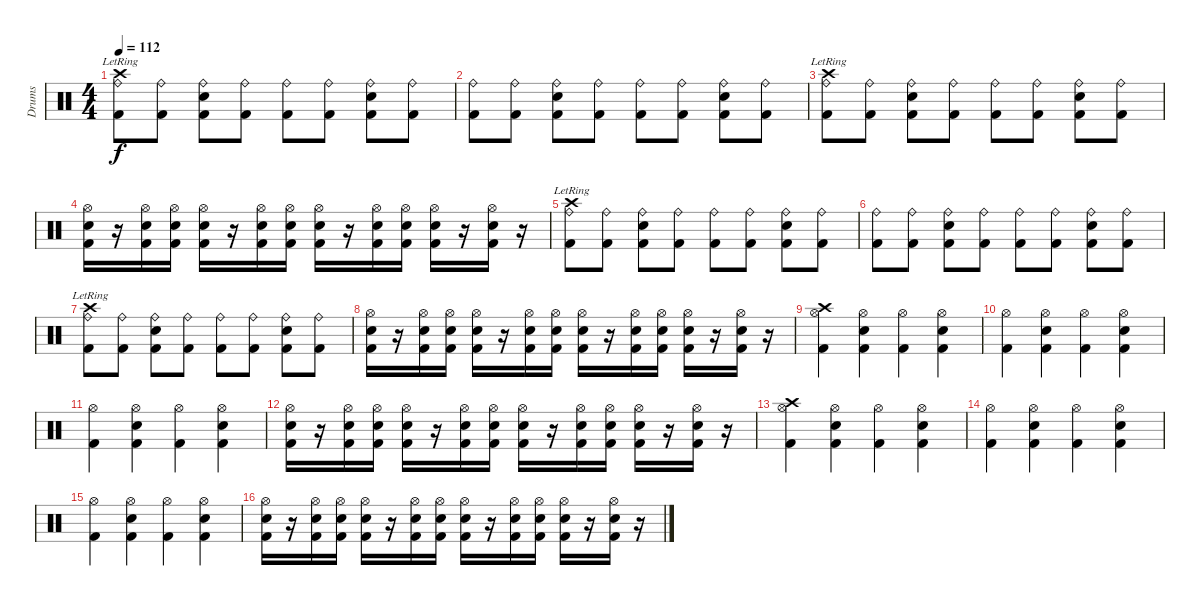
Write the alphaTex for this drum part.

\track ("Drums" "Drums") {instrument percussion}
\staff {score}
\articulation defaults
\ts (4 4)
\tempo 112
\clef neutral
\ks c
("Ride (bell)" "Kick (hit) 2" "Crash high (hit)"{lr}).8{dy f} ("Ride (bell)" "Kick (hit) 2").8 ("Ride (bell)" "Kick (hit) 2" "Electric Snare (hit)").8 ("Ride (bell)" "Kick (hit) 2").8 ("Ride (bell)" "Kick (hit) 2").8 ("Ride (bell)" "Kick (hit) 2").8 ("Ride (bell)" "Kick (hit) 2" "Electric Snare (hit)").8 ("Ride (bell)" "Kick (hit) 2").8 |
("Ride (bell)" "Kick (hit) 2").8 ("Ride (bell)" "Kick (hit) 2").8 ("Ride (bell)" "Kick (hit) 2" "Electric Snare (hit)").8 ("Ride (bell)" "Kick (hit) 2").8 ("Ride (bell)" "Kick (hit) 2").8 ("Ride (bell)" "Kick (hit) 2").8 ("Ride (bell)" "Kick (hit) 2" "Electric Snare (hit)").8 ("Ride (bell)" "Kick (hit) 2").8 |
("Ride (bell)" "Kick (hit) 2" "Crash high (hit)"{lr}).8 ("Ride (bell)" "Kick (hit) 2").8 ("Ride (bell)" "Kick (hit) 2" "Electric Snare (hit)").8 ("Ride (bell)" "Kick (hit) 2").8 ("Ride (bell)" "Kick (hit) 2").8 ("Ride (bell)" "Kick (hit) 2").8 ("Ride (bell)" "Kick (hit) 2" "Electric Snare (hit)").8 ("Ride (bell)" "Kick (hit) 2").8 |
("Hi-Hat (open)" "Electric Snare (hit)" "Kick (hit) 2").16 r.16 ("Hi-Hat (open)" "Snare (hit) 2" "Kick (hit) 2").16 ("Hi-Hat (open)" "Snare (hit) 2" "Kick (hit) 2").16 ("Hi-Hat (open)" "Electric Snare (hit)" "Kick (hit) 2").16 r.16 ("Hi-Hat (open)" "Snare (hit) 2" "Kick (hit) 2").16 ("Hi-Hat (open)" "Snare (hit) 2" "Kick (hit) 2").16 ("Hi-Hat (open)" "Electric Snare (hit)" "Kick (hit) 2").16 r.16 ("Hi-Hat (open)" "Snare (hit) 2" "Kick (hit) 2").16 ("Hi-Hat (open)" "Snare (hit) 2" "Kick (hit) 2").16 ("Hi-Hat (open)" "Electric Snare (hit)" "Kick (hit) 2").16 r.16 ("Hi-Hat (open)" "Snare (hit) 2" "Kick (hit) 2").16 r.16 |
("Ride (bell)" "Kick (hit) 2" "Crash high (hit)"{lr}).8 ("Ride (bell)" "Kick (hit) 2").8 ("Ride (bell)" "Kick (hit) 2" "Electric Snare (hit)").8 ("Ride (bell)" "Kick (hit) 2").8 ("Ride (bell)" "Kick (hit) 2").8 ("Ride (bell)" "Kick (hit) 2").8 ("Ride (bell)" "Kick (hit) 2" "Electric Snare (hit)").8 ("Ride (bell)" "Kick (hit) 2").8 |
("Ride (bell)" "Kick (hit) 2").8 ("Ride (bell)" "Kick (hit) 2").8 ("Ride (bell)" "Kick (hit) 2" "Electric Snare (hit)").8 ("Ride (bell)" "Kick (hit) 2").8 ("Ride (bell)" "Kick (hit) 2").8 ("Ride (bell)" "Kick (hit) 2").8 ("Ride (bell)" "Kick (hit) 2" "Electric Snare (hit)").8 ("Ride (bell)" "Kick (hit) 2").8 |
("Ride (bell)" "Kick (hit) 2" "Crash high (hit)"{lr}).8 ("Ride (bell)" "Kick (hit) 2").8 ("Ride (bell)" "Kick (hit) 2" "Electric Snare (hit)").8 ("Ride (bell)" "Kick (hit) 2").8 ("Ride (bell)" "Kick (hit) 2").8 ("Ride (bell)" "Kick (hit) 2").8 ("Ride (bell)" "Kick (hit) 2" "Electric Snare (hit)").8 ("Ride (bell)" "Kick (hit) 2").8 |
("Hi-Hat (open)" "Electric Snare (hit)" "Kick (hit) 2").16 r.16 ("Hi-Hat (open)" "Snare (hit) 2" "Kick (hit) 2").16 ("Hi-Hat (open)" "Snare (hit) 2" "Kick (hit) 2").16 ("Hi-Hat (open)" "Electric Snare (hit)" "Kick (hit) 2").16 r.16 ("Hi-Hat (open)" "Snare (hit) 2" "Kick (hit) 2").16 ("Hi-Hat (open)" "Snare (hit) 2" "Kick (hit) 2").16 ("Hi-Hat (open)" "Electric Snare (hit)" "Kick (hit) 2").16 r.16 ("Hi-Hat (open)" "Snare (hit) 2" "Kick (hit) 2").16 ("Hi-Hat (open)" "Snare (hit) 2" "Kick (hit) 2").16 ("Hi-Hat (open)" "Electric Snare (hit)" "Kick (hit) 2").16 r.16 ("Hi-Hat (open)" "Snare (hit) 2" "Kick (hit) 2").16 r.16 |
("Crash high (hit)" "Hi-Hat (open)" "Kick (hit) 2").4 ("Electric Snare (hit)" "Hi-Hat (open)" "Kick (hit) 2").4 ("Hi-Hat (open)" "Kick (hit) 2").4 ("Electric Snare (hit)" "Hi-Hat (open)" "Kick (hit) 2").4 |
("Hi-Hat (open)" "Kick (hit) 2").4 ("Electric Snare (hit)" "Hi-Hat (open)" "Kick (hit) 2").4 ("Hi-Hat (open)" "Kick (hit) 2").4 ("Electric Snare (hit)" "Hi-Hat (open)" "Kick (hit) 2").4 |
("Hi-Hat (open)" "Kick (hit) 2").4 ("Electric Snare (hit)" "Hi-Hat (open)" "Kick (hit) 2").4 ("Hi-Hat (open)" "Kick (hit) 2").4 ("Electric Snare (hit)" "Hi-Hat (open)" "Kick (hit) 2").4 |
("Hi-Hat (open)" "Electric Snare (hit)" "Kick (hit) 2").16 r.16 ("Hi-Hat (open)" "Snare (hit) 2" "Kick (hit) 2").16 ("Hi-Hat (open)" "Snare (hit) 2" "Kick (hit) 2").16 ("Hi-Hat (open)" "Electric Snare (hit)" "Kick (hit) 2").16 r.16 ("Hi-Hat (open)" "Snare (hit) 2" "Kick (hit) 2").16 ("Hi-Hat (open)" "Snare (hit) 2" "Kick (hit) 2").16 ("Hi-Hat (open)" "Electric Snare (hit)" "Kick (hit) 2").16 r.16 ("Hi-Hat (open)" "Snare (hit) 2" "Kick (hit) 2").16 ("Hi-Hat (open)" "Snare (hit) 2" "Kick (hit) 2").16 ("Hi-Hat (open)" "Electric Snare (hit)" "Kick (hit) 2").16 r.16 ("Hi-Hat (open)" "Snare (hit) 2" "Kick (hit) 2").16 r.16 |
("Crash high (hit)" "Hi-Hat (open)" "Kick (hit) 2").4 ("Electric Snare (hit)" "Hi-Hat (open)" "Kick (hit) 2").4 ("Hi-Hat (open)" "Kick (hit) 2").4 ("Electric Snare (hit)" "Hi-Hat (open)" "Kick (hit) 2").4 |
("Hi-Hat (open)" "Kick (hit) 2").4 ("Electric Snare (hit)" "Hi-Hat (open)" "Kick (hit) 2").4 ("Hi-Hat (open)" "Kick (hit) 2").4 ("Electric Snare (hit)" "Hi-Hat (open)" "Kick (hit) 2").4 |
("Hi-Hat (open)" "Kick (hit) 2").4 ("Electric Snare (hit)" "Hi-Hat (open)" "Kick (hit) 2").4 ("Hi-Hat (open)" "Kick (hit) 2").4 ("Electric Snare (hit)" "Hi-Hat (open)" "Kick (hit) 2").4 |
("Hi-Hat (open)" "Electric Snare (hit)" "Kick (hit) 2").16 r.16 ("Hi-Hat (open)" "Snare (hit) 2" "Kick (hit) 2").16 ("Hi-Hat (open)" "Snare (hit) 2" "Kick (hit) 2").16 ("Hi-Hat (open)" "Electric Snare (hit)" "Kick (hit) 2").16 r.16 ("Hi-Hat (open)" "Snare (hit) 2" "Kick (hit) 2").16 ("Hi-Hat (open)" "Snare (hit) 2" "Kick (hit) 2").16 ("Hi-Hat (open)" "Electric Snare (hit)" "Kick (hit) 2").16 r.16 ("Hi-Hat (open)" "Snare (hit) 2" "Kick (hit) 2").16 ("Hi-Hat (open)" "Snare (hit) 2" "Kick (hit) 2").16 ("Hi-Hat (open)" "Electric Snare (hit)" "Kick (hit) 2").16 r.16 ("Hi-Hat (open)" "Snare (hit) 2" "Kick (hit) 2").16 r.16
